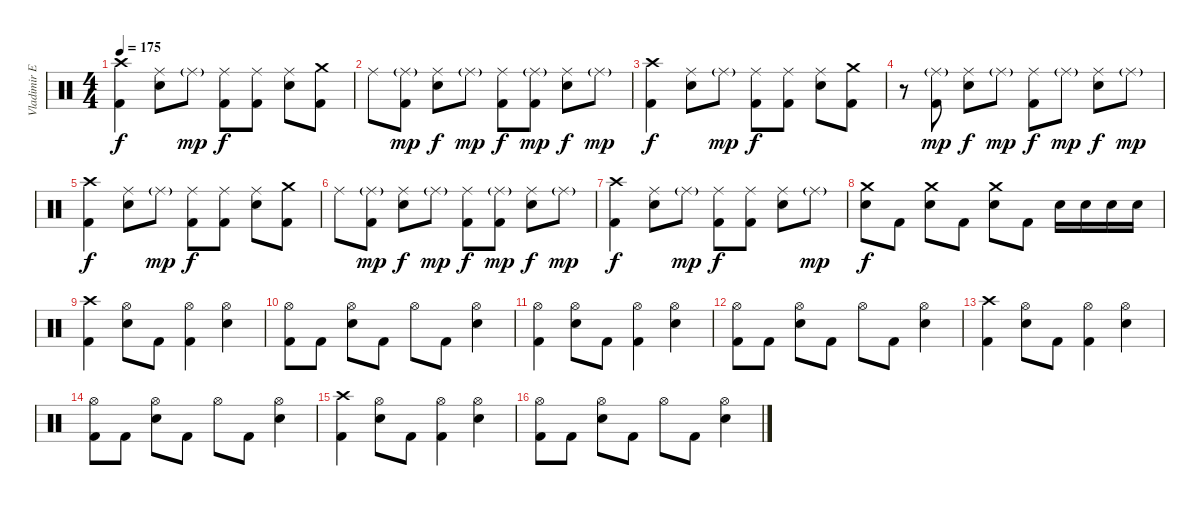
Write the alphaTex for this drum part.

\track ("Vladimir Ermakoff" "Vladimir E") {instrument percussion}
\staff {score}
\articulation defaults
\ts (4 4)
\tempo 175
\clef neutral
\ks c
("Crash high (hit)" "Kick (hit) 2").4{dy f} ("Ride (middle)" "Electric Snare (hit)").8 "Ride (middle)"{g}.8{dy mp} ("Ride (middle)" "Kick (hit) 2").8{dy f} ("Ride (middle)" "Kick (hit) 2").8 ("Ride (middle)" "Electric Snare (hit)").8 ("Crash medium (hit)" "Kick (hit) 2").8 |
"Ride (middle)".8 ("Ride (middle)"{g} "Kick (hit) 2").8{dy mp} ("Ride (middle)" "Electric Snare (hit)").8{dy f} "Ride (middle)"{g}.8{dy mp} ("Ride (middle)" "Kick (hit) 2").8{dy f} ("Ride (middle)"{g} "Kick (hit) 2").8{dy mp} ("Ride (middle)" "Electric Snare (hit)").8{dy f} "Ride (middle)"{g}.8{dy mp} |
("Crash high (hit)" "Kick (hit) 2").4{dy f} ("Ride (middle)" "Electric Snare (hit)").8 "Ride (middle)"{g}.8{dy mp} ("Ride (middle)" "Kick (hit) 2").8{dy f} ("Ride (middle)" "Kick (hit) 2").8 ("Ride (middle)" "Electric Snare (hit)").8 ("Crash medium (hit)" "Kick (hit) 2").8 |
r.8 ("Ride (middle)"{g} "Kick (hit) 2").8{dy mp} ("Ride (middle)" "Electric Snare (hit)").8{dy f} "Ride (middle)"{g}.8{dy mp} ("Ride (middle)" "Kick (hit) 2").8{dy f} "Ride (middle)"{g}.8{dy mp} ("Ride (middle)" "Electric Snare (hit)").8{dy f} "Ride (middle)"{g}.8{dy mp} |
("Crash high (hit)" "Kick (hit) 2").4{dy f} ("Ride (middle)" "Electric Snare (hit)").8 "Ride (middle)"{g}.8{dy mp} ("Ride (middle)" "Kick (hit) 2").8{dy f} ("Ride (middle)" "Kick (hit) 2").8 ("Ride (middle)" "Electric Snare (hit)").8 ("Crash medium (hit)" "Kick (hit) 2").8 |
"Ride (middle)".8 ("Ride (middle)"{g} "Kick (hit) 2").8{dy mp} ("Ride (middle)" "Electric Snare (hit)").8{dy f} "Ride (middle)"{g}.8{dy mp} ("Ride (middle)" "Kick (hit) 2").8{dy f} ("Ride (middle)"{g} "Kick (hit) 2").8{dy mp} ("Ride (middle)" "Electric Snare (hit)").8{dy f} "Ride (middle)"{g}.8{dy mp} |
("Crash high (hit)" "Kick (hit) 2").4{dy f} ("Ride (middle)" "Electric Snare (hit)").8 "Ride (middle)"{g}.8{dy mp} ("Ride (middle)" "Kick (hit) 2").8{dy f} ("Ride (middle)" "Kick (hit) 2").8 ("Ride (middle)" "Electric Snare (hit)").8 "Ride (middle)"{g}.8{dy mp} |
("Crash medium (hit)" "Electric Snare (hit)").8{dy f} "Kick (hit) 2".8 ("Crash medium (hit)" "Electric Snare (hit)").8 "Kick (hit) 2".8 ("Crash medium (hit)" "Electric Snare (hit)").8 "Kick (hit) 2".8 "Electric Snare (hit)".16 "Electric Snare (hit)".16 "Electric Snare (hit)".16 "Electric Snare (hit)".16 |
("Crash high (hit)" "Kick (hit) 2").4 ("Hi-Hat (open)" "Electric Snare (hit)").8 "Kick (hit) 2".8 ("Hi-Hat (open)" "Kick (hit) 2").4 ("Hi-Hat (open)" "Electric Snare (hit)").4 |
("Hi-Hat (open)" "Kick (hit) 2").8 "Kick (hit) 2".8 ("Hi-Hat (open)" "Electric Snare (hit)").8 "Kick (hit) 2".8 "Hi-Hat (open)".8 "Kick (hit) 2".8 ("Hi-Hat (open)" "Electric Snare (hit)").4 |
("Hi-Hat (open)" "Kick (hit) 2").4 ("Hi-Hat (open)" "Electric Snare (hit)").8 "Kick (hit) 2".8 ("Hi-Hat (open)" "Kick (hit) 2").4 ("Hi-Hat (open)" "Electric Snare (hit)").4 |
("Hi-Hat (open)" "Kick (hit) 2").8 "Kick (hit) 2".8 ("Hi-Hat (open)" "Electric Snare (hit)").8 "Kick (hit) 2".8 "Hi-Hat (open)".8 "Kick (hit) 2".8 ("Hi-Hat (open)" "Electric Snare (hit)").4 |
("Crash high (hit)" "Kick (hit) 2").4 ("Hi-Hat (open)" "Electric Snare (hit)").8 "Kick (hit) 2".8 ("Hi-Hat (open)" "Kick (hit) 2").4 ("Hi-Hat (open)" "Electric Snare (hit)").4 |
("Hi-Hat (open)" "Kick (hit) 2").8 "Kick (hit) 2".8 ("Hi-Hat (open)" "Electric Snare (hit)").8 "Kick (hit) 2".8 "Hi-Hat (open)".8 "Kick (hit) 2".8 ("Hi-Hat (open)" "Electric Snare (hit)").4 |
("Crash high (hit)" "Kick (hit) 2").4 ("Hi-Hat (open)" "Electric Snare (hit)").8 "Kick (hit) 2".8 ("Hi-Hat (open)" "Kick (hit) 2").4 ("Hi-Hat (open)" "Electric Snare (hit)").4 |
("Hi-Hat (open)" "Kick (hit) 2").8 "Kick (hit) 2".8 ("Hi-Hat (open)" "Electric Snare (hit)").8 "Kick (hit) 2".8 "Hi-Hat (open)".8 "Kick (hit) 2".8 ("Hi-Hat (open)" "Electric Snare (hit)").4
